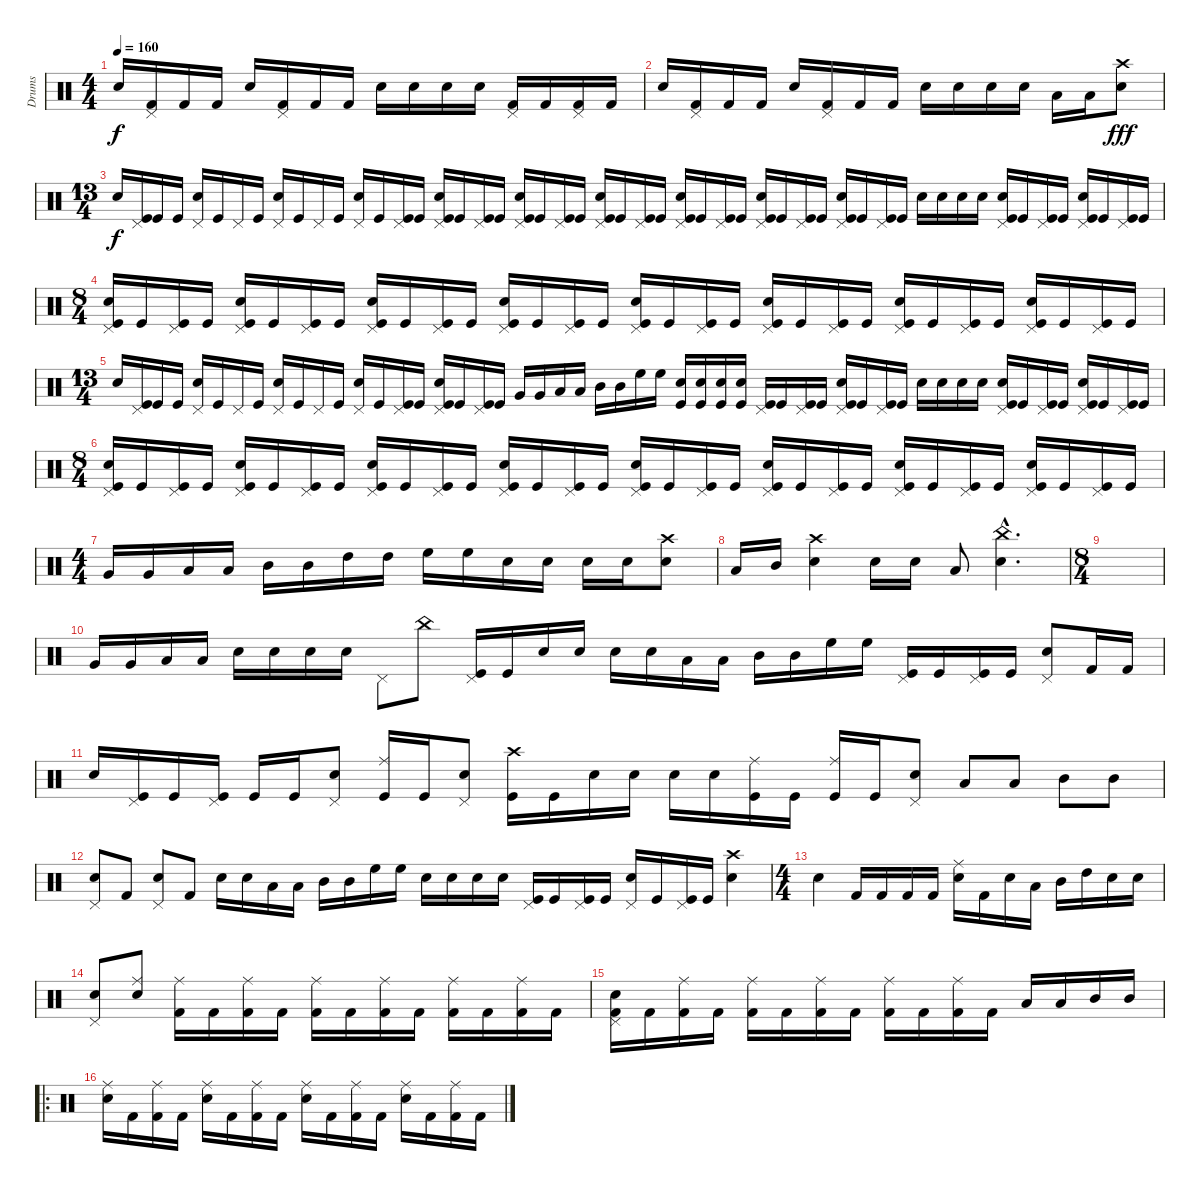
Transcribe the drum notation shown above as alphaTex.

\track ("Drums" "Drums") {instrument percussion}
\staff {score}
\articulation defaults
\ts (4 4)
\tempo 160
\clef neutral
\ks c "Electric Snare (hit)".16{dy f}
("Pedal Hi-Hat (hit)" "Kick (hit) 2").16 "Kick (hit) 2".16 "Kick (hit) 2".16 "Electric Snare (hit)".16 ("Pedal Hi-Hat (hit)" "Kick (hit) 2").16 "Kick (hit) 2".16 "Kick (hit) 2".16 "Electric Snare (hit)".16 "Electric Snare (hit)".16 "Electric Snare (hit)".16 "Electric Snare (hit)".16 ("Pedal Hi-Hat (hit)" "Kick (hit) 2").16 "Kick (hit) 2".16 ("Pedal Hi-Hat (hit)" "Kick (hit) 2").16 "Kick (hit) 2".16 |
"Electric Snare (hit)".16 ("Pedal Hi-Hat (hit)" "Kick (hit) 2").16 "Kick (hit) 2".16 "Kick (hit) 2".16 "Electric Snare (hit)".16 ("Pedal Hi-Hat (hit)" "Kick (hit) 2").16 "Kick (hit) 2".16 "Kick (hit) 2".16 "Electric Snare (hit)".16 "Electric Snare (hit)".16 "Electric Snare (hit)".16 "Electric Snare (hit)".16 "Low Tom (hit)".16 "Low Tom (hit)".16 ("Electric Snare (hit)" "Crash high (hit)").8{dy fff} |
\ts (13 4)
"Electric Snare (hit)".16{dy f} ("Pedal Hi-Hat (hit)" "Kick (hit)").16 "Kick (hit)".16 "Kick (hit)".16 ("Pedal Hi-Hat (hit)" "Electric Snare (hit)").16 "Kick (hit)".16 "Pedal Hi-Hat (hit)".16 "Kick (hit)".16 ("Pedal Hi-Hat (hit)" "Electric Snare (hit)").16 "Kick (hit)".16 "Pedal Hi-Hat (hit)".16 "Kick (hit)".16 ("Pedal Hi-Hat (hit)" "Electric Snare (hit)").16 "Kick (hit)".16 ("Pedal Hi-Hat (hit)" "Kick (hit)").16 "Kick (hit)".16 ("Pedal Hi-Hat (hit)" "Electric Snare (hit)" "Kick (hit)").16 "Kick (hit)".16 ("Pedal Hi-Hat (hit)" "Kick (hit)").16 "Kick (hit)".16 ("Pedal Hi-Hat (hit)" "Electric Snare (hit)" "Kick (hit)").16 "Kick (hit)".16 ("Pedal Hi-Hat (hit)" "Kick (hit)").16 "Kick (hit)".16 ("Pedal Hi-Hat (hit)" "Electric Snare (hit)" "Kick (hit)").16 "Kick (hit)".16 ("Pedal Hi-Hat (hit)" "Kick (hit)").16 "Kick (hit)".16 ("Pedal Hi-Hat (hit)" "Electric Snare (hit)" "Kick (hit)").16 "Kick (hit)".16 ("Pedal Hi-Hat (hit)" "Kick (hit)").16 "Kick (hit)".16 ("Pedal Hi-Hat (hit)" "Electric Snare (hit)" "Kick (hit)").16 "Kick (hit)".16 ("Pedal Hi-Hat (hit)" "Kick (hit)").16 "Kick (hit)".16 ("Pedal Hi-Hat (hit)" "Electric Snare (hit)" "Kick (hit)").16 "Kick (hit)".16 ("Pedal Hi-Hat (hit)" "Kick (hit)").16 "Kick (hit)".16 "Electric Snare (hit)".16 "Electric Snare (hit)".16 "Electric Snare (hit)".16 "Electric Snare (hit)".16 ("Pedal Hi-Hat (hit)" "Electric Snare (hit)" "Kick (hit)").16 "Kick (hit)".16 ("Pedal Hi-Hat (hit)" "Kick (hit)").16 "Kick (hit)".16 ("Pedal Hi-Hat (hit)" "Electric Snare (hit)" "Kick (hit)").16 "Kick (hit)".16 ("Pedal Hi-Hat (hit)" "Kick (hit)").16 "Kick (hit)".16 |
\ts (8 4)
("Pedal Hi-Hat (hit)" "Electric Snare (hit)" "Kick (hit)").16 "Kick (hit)".16 ("Pedal Hi-Hat (hit)" "Kick (hit)").16 "Kick (hit)".16 ("Pedal Hi-Hat (hit)" "Electric Snare (hit)" "Kick (hit)").16 "Kick (hit)".16 ("Pedal Hi-Hat (hit)" "Kick (hit)").16 "Kick (hit)".16 ("Pedal Hi-Hat (hit)" "Electric Snare (hit)" "Kick (hit)").16 "Kick (hit)".16 ("Pedal Hi-Hat (hit)" "Kick (hit)").16 "Kick (hit)".16 ("Pedal Hi-Hat (hit)" "Electric Snare (hit)" "Kick (hit)").16 "Kick (hit)".16 ("Pedal Hi-Hat (hit)" "Kick (hit)").16 "Kick (hit)".16 ("Pedal Hi-Hat (hit)" "Electric Snare (hit)" "Kick (hit)").16 "Kick (hit)".16 ("Pedal Hi-Hat (hit)" "Kick (hit)").16 "Kick (hit)".16 ("Pedal Hi-Hat (hit)" "Electric Snare (hit)" "Kick (hit)").16 "Kick (hit)".16 ("Pedal Hi-Hat (hit)" "Kick (hit)").16 "Kick (hit)".16 ("Pedal Hi-Hat (hit)" "Electric Snare (hit)" "Kick (hit)").16 "Kick (hit)".16 ("Pedal Hi-Hat (hit)" "Kick (hit)").16 "Kick (hit)".16 ("Pedal Hi-Hat (hit)" "Electric Snare (hit)" "Kick (hit)").16 "Kick (hit)".16 ("Pedal Hi-Hat (hit)" "Kick (hit)").16 "Kick (hit)".16 |
\ts (13 4)
"Electric Snare (hit)".16 ("Pedal Hi-Hat (hit)" "Kick (hit)").16 "Kick (hit)".16 "Kick (hit)".16 ("Pedal Hi-Hat (hit)" "Electric Snare (hit)").16 "Kick (hit)".16 "Pedal Hi-Hat (hit)".16 "Kick (hit)".16 ("Pedal Hi-Hat (hit)" "Electric Snare (hit)").16 "Kick (hit)".16 "Pedal Hi-Hat (hit)".16 "Kick (hit)".16 ("Pedal Hi-Hat (hit)" "Electric Snare (hit)").16 "Kick (hit)".16 ("Pedal Hi-Hat (hit)" "Kick (hit)").16 "Kick (hit)".16 ("Pedal Hi-Hat (hit)" "Electric Snare (hit)" "Kick (hit)").16 "Kick (hit)".16 ("Pedal Hi-Hat (hit)" "Kick (hit)").16 "Kick (hit)".16 "Very Low Tom (hit)".16 "Very Low Tom (hit)".16 "Low Tom (hit)".16 "Low Tom (hit)".16 "Mid Tom (hit)".16 "Mid Tom (hit)".16 "High Floor Tom (hit)".16 "High Floor Tom (hit)".16 ("Electric Snare (hit)" "Kick (hit)").16 ("Electric Snare (hit)" "Kick (hit)").16 ("Electric Snare (hit)" "Kick (hit)").16 ("Electric Snare (hit)" "Kick (hit)").16 ("Pedal Hi-Hat (hit)" "Kick (hit)").16 "Kick (hit)".16 ("Pedal Hi-Hat (hit)" "Kick (hit)").16 "Kick (hit)".16 ("Pedal Hi-Hat (hit)" "Electric Snare (hit)" "Kick (hit)").16 "Kick (hit)".16 ("Pedal Hi-Hat (hit)" "Kick (hit)").16 "Kick (hit)".16 "Electric Snare (hit)".16 "Electric Snare (hit)".16 "Electric Snare (hit)".16 "Electric Snare (hit)".16 ("Pedal Hi-Hat (hit)" "Electric Snare (hit)" "Kick (hit)").16 "Kick (hit)".16 ("Pedal Hi-Hat (hit)" "Kick (hit)").16 "Kick (hit)".16 ("Pedal Hi-Hat (hit)" "Electric Snare (hit)" "Kick (hit)").16 "Kick (hit)".16 ("Pedal Hi-Hat (hit)" "Kick (hit)").16 "Kick (hit)".16 |
\ts (8 4)
("Pedal Hi-Hat (hit)" "Electric Snare (hit)" "Kick (hit)").16 "Kick (hit)".16 ("Pedal Hi-Hat (hit)" "Kick (hit)").16 "Kick (hit)".16 ("Pedal Hi-Hat (hit)" "Electric Snare (hit)" "Kick (hit)").16 "Kick (hit)".16 ("Pedal Hi-Hat (hit)" "Kick (hit)").16 "Kick (hit)".16 ("Pedal Hi-Hat (hit)" "Electric Snare (hit)" "Kick (hit)").16 "Kick (hit)".16 ("Pedal Hi-Hat (hit)" "Kick (hit)").16 "Kick (hit)".16 ("Pedal Hi-Hat (hit)" "Electric Snare (hit)" "Kick (hit)").16 "Kick (hit)".16 ("Pedal Hi-Hat (hit)" "Kick (hit)").16 "Kick (hit)".16 ("Pedal Hi-Hat (hit)" "Electric Snare (hit)" "Kick (hit)").16 "Kick (hit)".16 ("Pedal Hi-Hat (hit)" "Kick (hit)").16 "Kick (hit)".16 ("Pedal Hi-Hat (hit)" "Electric Snare (hit)" "Kick (hit)").16 "Kick (hit)".16 ("Pedal Hi-Hat (hit)" "Kick (hit)").16 "Kick (hit)".16 ("Pedal Hi-Hat (hit)" "Electric Snare (hit)" "Kick (hit)").16 "Kick (hit)".16 ("Pedal Hi-Hat (hit)" "Kick (hit)").16 "Kick (hit)".16 ("Pedal Hi-Hat (hit)" "Electric Snare (hit)" "Kick (hit)").16 "Kick (hit)".16 ("Pedal Hi-Hat (hit)" "Kick (hit)").16 "Kick (hit)".16 |
\ts (4 4)
"Very Low Tom (hit)".16 "Very Low Tom (hit)".16 "Low Tom (hit)".16 "Low Tom (hit)".16 "Mid Tom (hit)".16 "Mid Tom (hit)".16 "High Tom (hit)".16 "High Tom (hit)".16 "High Floor Tom (hit)".16 "High Floor Tom (hit)".16 "Electric Snare (hit)".16 "Electric Snare (hit)".16 "Electric Snare (hit)".16 "Electric Snare (hit)".16 ("Electric Snare (hit)" "Crash high (hit)").8 |
"Low Tom (hit)".16 "Mid Tom (hit)".16 ("Electric Snare (hit)" "Crash high (hit)").4 "Electric Snare (hit)".16 "Electric Snare (hit)".16 "Low Tom (hit)".8 ("Electric Snare (hit)"{hac} "China (hit)"{hac}).4{d} |
\ts (8 4)
|
"Very Low Tom (hit)".16 "Very Low Tom (hit)".16 "Low Tom (hit)".16 "Low Tom (hit)".16 "Electric Snare (hit)".16 "Electric Snare (hit)".16 "Electric Snare (hit)".16 "Electric Snare (hit)".16 "Pedal Hi-Hat (hit)".8 "China (hit)".8 ("Pedal Hi-Hat (hit)" "Kick (hit)").16 "Kick (hit)".16 "Electric Snare (hit)".16 "Electric Snare (hit)".16 "Electric Snare (hit)".16 "Electric Snare (hit)".16 "Low Tom (hit)".16 "Low Tom (hit)".16 "Mid Tom (hit)".16 "Mid Tom (hit)".16 "High Floor Tom (hit)".16 "High Floor Tom (hit)".16 ("Pedal Hi-Hat (hit)" "Kick (hit)").16 "Kick (hit)".16 ("Pedal Hi-Hat (hit)" "Kick (hit)").16 "Kick (hit)".16 ("Pedal Hi-Hat (hit)" "Electric Snare (hit)").8 "Kick (hit) 2".16 "Kick (hit) 2".16 |
"Electric Snare (hit)".16 ("Pedal Hi-Hat (hit)" "Kick (hit)").16 "Kick (hit)".16 ("Pedal Hi-Hat (hit)" "Kick (hit)").16 "Kick (hit)".16 "Kick (hit)".16 ("Pedal Hi-Hat (hit)" "Electric Snare (hit)").8 ("Ride (middle)" "Kick (hit)").16 "Kick (hit)".16 ("Pedal Hi-Hat (hit)" "Electric Snare (hit)").8 ("Crash high (hit)" "Kick (hit)").16 "Kick (hit)".16 "Electric Snare (hit)".16 "Electric Snare (hit)".16 "Electric Snare (hit)".16 "Electric Snare (hit)".16 ("Ride (middle)" "Kick (hit)").16 "Kick (hit)".16 ("Ride (middle)" "Kick (hit)").16 "Kick (hit)".16 ("Pedal Hi-Hat (hit)" "Electric Snare (hit)").8 "Low Tom (hit)".8 "Low Tom (hit)".8 "Mid Tom (hit)".8 "Mid Tom (hit)".8 |
("Pedal Hi-Hat (hit)" "Electric Snare (hit)").8 "Kick (hit) 2".8 ("Pedal Hi-Hat (hit)" "Electric Snare (hit)").8 "Kick (hit) 2".8 "Electric Snare (hit)".16 "Electric Snare (hit)".16 "Low Tom (hit)".16 "Low Tom (hit)".16 "Mid Tom (hit)".16 "Mid Tom (hit)".16 "High Floor Tom (hit)".16 "High Floor Tom (hit)".16 "Electric Snare (hit)".16 "Electric Snare (hit)".16 "Electric Snare (hit)".16 "Electric Snare (hit)".16 ("Pedal Hi-Hat (hit)" "Kick (hit)").16 "Kick (hit)".16 ("Pedal Hi-Hat (hit)" "Kick (hit)").16 "Kick (hit)".16 ("Pedal Hi-Hat (hit)" "Electric Snare (hit)").16 "Kick (hit)".16 ("Pedal Hi-Hat (hit)" "Kick (hit)").16 "Kick (hit)".16 ("Electric Snare (hit)" "Crash high (hit)").4 |
\ts (4 4)
"Electric Snare (hit)".4 "Kick (hit) 2".16 "Kick (hit) 2".16 "Kick (hit) 2".16 "Kick (hit) 2".16 ("Ride (middle)" "Electric Snare (hit)").16 "Kick (hit) 2".16 "Electric Snare (hit)".16 "Low Tom (hit)".16 "Mid Tom (hit)".16 "High Tom (hit)".16 "Electric Snare (hit)".16 "Electric Snare (hit)".16 |
("Pedal Hi-Hat (hit)" "Electric Snare (hit)").8 ("Ride (middle)" "Electric Snare (hit)").8 ("Ride (middle)" "Kick (hit) 2").16 "Kick (hit) 2".16 ("Ride (middle)" "Kick (hit) 2").16 "Kick (hit) 2".16 ("Ride (middle)" "Kick (hit) 2").16 "Kick (hit) 2".16 ("Ride (middle)" "Kick (hit) 2").16 "Kick (hit) 2".16 ("Ride (middle)" "Kick (hit) 2").16 "Kick (hit) 2".16 ("Ride (middle)" "Kick (hit) 2").16 "Kick (hit) 2".16 |
("Pedal Hi-Hat (hit)" "Electric Snare (hit)" "Kick (hit) 2").16 "Kick (hit) 2".16 ("Ride (middle)" "Kick (hit) 2").16 "Kick (hit) 2".16 ("Ride (middle)" "Kick (hit) 2").16 "Kick (hit) 2".16 ("Ride (middle)" "Kick (hit) 2").16 "Kick (hit) 2".16 ("Ride (middle)" "Kick (hit) 2").16 "Kick (hit) 2".16 ("Ride (middle)" "Kick (hit) 2").16 "Kick (hit) 2".16 "Low Tom (hit)".16 "Low Tom (hit)".16 "Mid Tom (hit)".16 "Mid Tom (hit)".16 |
\ro
("Ride (middle)" "Electric Snare (hit)").16 "Kick (hit) 2".16 ("Ride (middle)" "Kick (hit) 2").16 "Kick (hit) 2".16 ("Ride (middle)" "Electric Snare (hit)").16 "Kick (hit) 2".16 ("Ride (middle)" "Kick (hit) 2").16 "Kick (hit) 2".16 ("Ride (middle)" "Electric Snare (hit)").16 "Kick (hit) 2".16 ("Ride (middle)" "Kick (hit) 2").16 "Kick (hit) 2".16 ("Ride (middle)" "Electric Snare (hit)").16 "Kick (hit) 2".16 ("Ride (middle)" "Kick (hit) 2").16 "Kick (hit) 2".16
